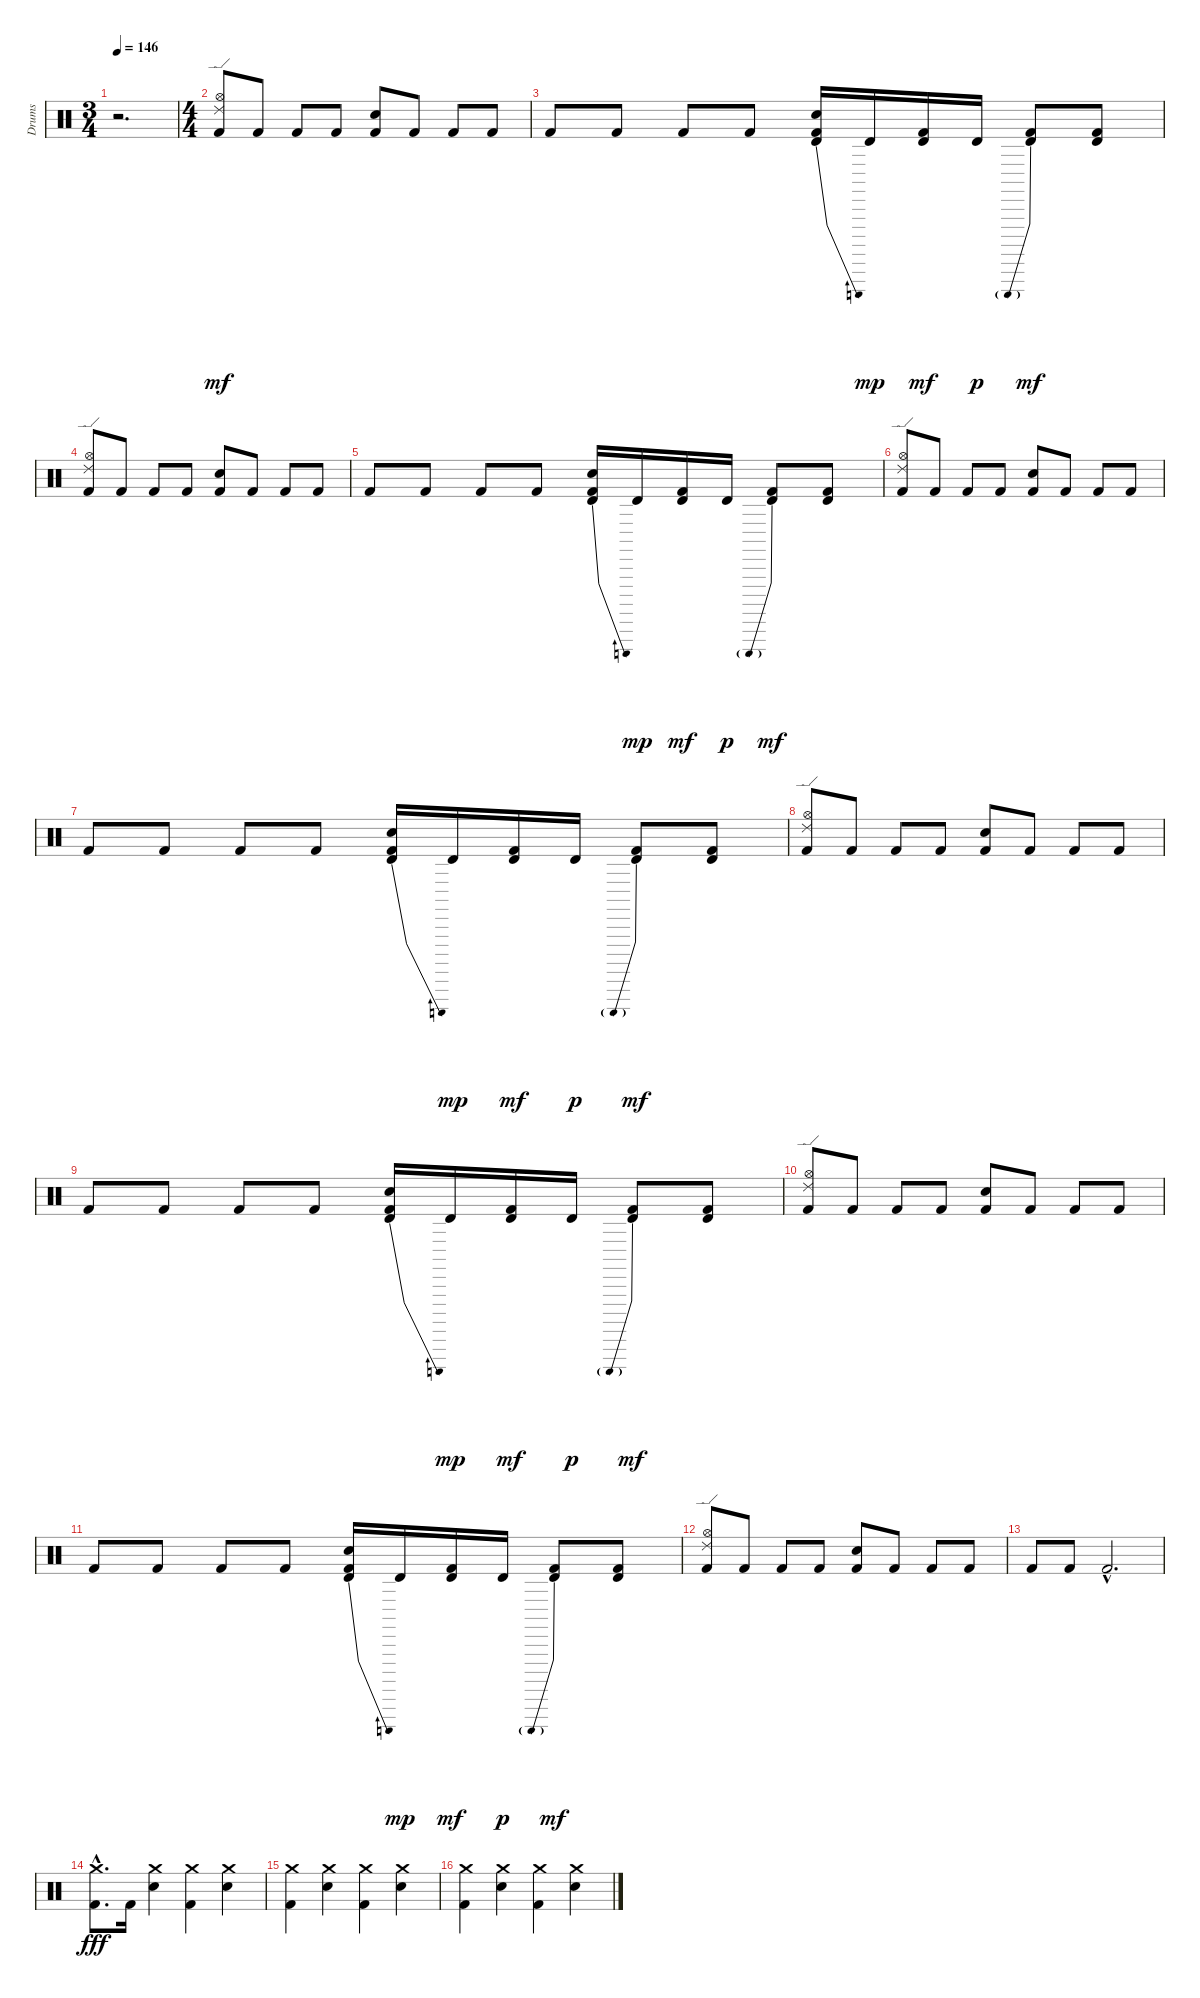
\track ("Drums" "Drums") {instrument percussion}
\staff {score}
\articulation defaults
\ts (3 4)
\tempo 146
\clef neutral
\ks c
r.2{d dy mf} |
\ts (4 4)
("Ride (edge) 2" "Hi-Hat (open)" "Kick (hit) 2").8 "Kick (hit) 2".8 "Kick (hit) 2".8 "Kick (hit) 2".8 ("Snare (hit) 2" "Kick (hit) 2").8 "Kick (hit) 2".8 "Kick (hit) 2".8 "Kick (hit) 2".8 |
"Kick (hit) 2".8 "Kick (hit) 2".8 "Kick (hit) 2".8 "Kick (hit) 2".8 ("Timbale high (hit)"{be (bend 0 0 60 1)} "Snare (hit) 2" "Kick (hit) 2").16 "Timbale high (hit)".16{dy mp} ("Timbale high (hit)" "Kick (hit) 2").16{dy mf} "Timbale high (hit)".16{dy p} ("Timbale high (hit)"{be (prebend 0 3 60 3)} "Kick (hit) 2").8{dy mf} ("Timbale high (hit)" "Kick (hit) 2").8 |
("Ride (edge) 2" "Hi-Hat (open)" "Kick (hit) 2").8 "Kick (hit) 2".8 "Kick (hit) 2".8 "Kick (hit) 2".8 ("Snare (hit) 2" "Kick (hit) 2").8 "Kick (hit) 2".8 "Kick (hit) 2".8 "Kick (hit) 2".8 |
"Kick (hit) 2".8 "Kick (hit) 2".8 "Kick (hit) 2".8 "Kick (hit) 2".8 ("Timbale high (hit)"{be (bend 0 0 60 1)} "Snare (hit) 2" "Kick (hit) 2").16 "Timbale high (hit)".16{dy mp} ("Timbale high (hit)" "Kick (hit) 2").16{dy mf} "Timbale high (hit)".16{dy p} ("Timbale high (hit)"{be (prebend 0 3 60 3)} "Kick (hit) 2").8{dy mf} ("Timbale high (hit)" "Kick (hit) 2").8 |
("Ride (edge) 2" "Hi-Hat (open)" "Kick (hit) 2").8 "Kick (hit) 2".8 "Kick (hit) 2".8 "Kick (hit) 2".8 ("Snare (hit) 2" "Kick (hit) 2").8 "Kick (hit) 2".8 "Kick (hit) 2".8 "Kick (hit) 2".8 |
"Kick (hit) 2".8 "Kick (hit) 2".8 "Kick (hit) 2".8 "Kick (hit) 2".8 ("Timbale high (hit)"{be (bend 0 0 60 1)} "Snare (hit) 2" "Kick (hit) 2").16 "Timbale high (hit)".16{dy mp} ("Timbale high (hit)" "Kick (hit) 2").16{dy mf} "Timbale high (hit)".16{dy p} ("Timbale high (hit)"{be (prebend 0 3 60 3)} "Kick (hit) 2").8{dy mf} ("Timbale high (hit)" "Kick (hit) 2").8 |
("Ride (edge) 2" "Hi-Hat (open)" "Kick (hit) 2").8 "Kick (hit) 2".8 "Kick (hit) 2".8 "Kick (hit) 2".8 ("Snare (hit) 2" "Kick (hit) 2").8 "Kick (hit) 2".8 "Kick (hit) 2".8 "Kick (hit) 2".8 |
"Kick (hit) 2".8 "Kick (hit) 2".8 "Kick (hit) 2".8 "Kick (hit) 2".8 ("Timbale high (hit)"{be (bend 0 0 60 1)} "Snare (hit) 2" "Kick (hit) 2").16 "Timbale high (hit)".16{dy mp} ("Timbale high (hit)" "Kick (hit) 2").16{dy mf} "Timbale high (hit)".16{dy p} ("Timbale high (hit)"{be (prebend 0 3 60 3)} "Kick (hit) 2").8{dy mf} ("Timbale high (hit)" "Kick (hit) 2").8 |
("Ride (edge) 2" "Hi-Hat (open)" "Kick (hit) 2").8 "Kick (hit) 2".8 "Kick (hit) 2".8 "Kick (hit) 2".8 ("Snare (hit) 2" "Kick (hit) 2").8 "Kick (hit) 2".8 "Kick (hit) 2".8 "Kick (hit) 2".8 |
"Kick (hit) 2".8 "Kick (hit) 2".8 "Kick (hit) 2".8 "Kick (hit) 2".8 ("Timbale high (hit)"{be (bend 0 0 60 1)} "Snare (hit) 2" "Kick (hit) 2").16 "Timbale high (hit)".16{dy mp} ("Timbale high (hit)" "Kick (hit) 2").16{dy mf} "Timbale high (hit)".16{dy p} ("Timbale high (hit)"{be (prebend 0 3 60 3)} "Kick (hit) 2").8{dy mf} ("Timbale high (hit)" "Kick (hit) 2").8 |
("Ride (edge) 2" "Hi-Hat (open)" "Kick (hit) 2").8 "Kick (hit) 2".8 "Kick (hit) 2".8 "Kick (hit) 2".8 ("Snare (hit) 2" "Kick (hit) 2").8 "Kick (hit) 2".8 "Kick (hit) 2".8 "Kick (hit) 2".8 |
"Kick (hit) 2".8 "Kick (hit) 2".8 "Kick (hit) 2"{hac}.2{d} |
("Crash medium (hit)"{hac} "Kick (hit) 2"{hac}).8{d dy fff} "Kick (hit) 2".16 ("Crash medium (hit)" "Snare (hit) 2").4 ("Crash medium (hit)" "Kick (hit) 2").4 ("Crash medium (hit)" "Snare (hit) 2").4 |
("Crash medium (hit)" "Kick (hit) 2").4 ("Crash medium (hit)" "Snare (hit) 2").4 ("Crash medium (hit)" "Kick (hit) 2").4 ("Crash medium (hit)" "Snare (hit) 2").4 |
("Crash medium (hit)" "Kick (hit) 2").4 ("Crash medium (hit)" "Snare (hit) 2").4 ("Crash medium (hit)" "Kick (hit) 2").4 ("Crash medium (hit)" "Snare (hit) 2").4
